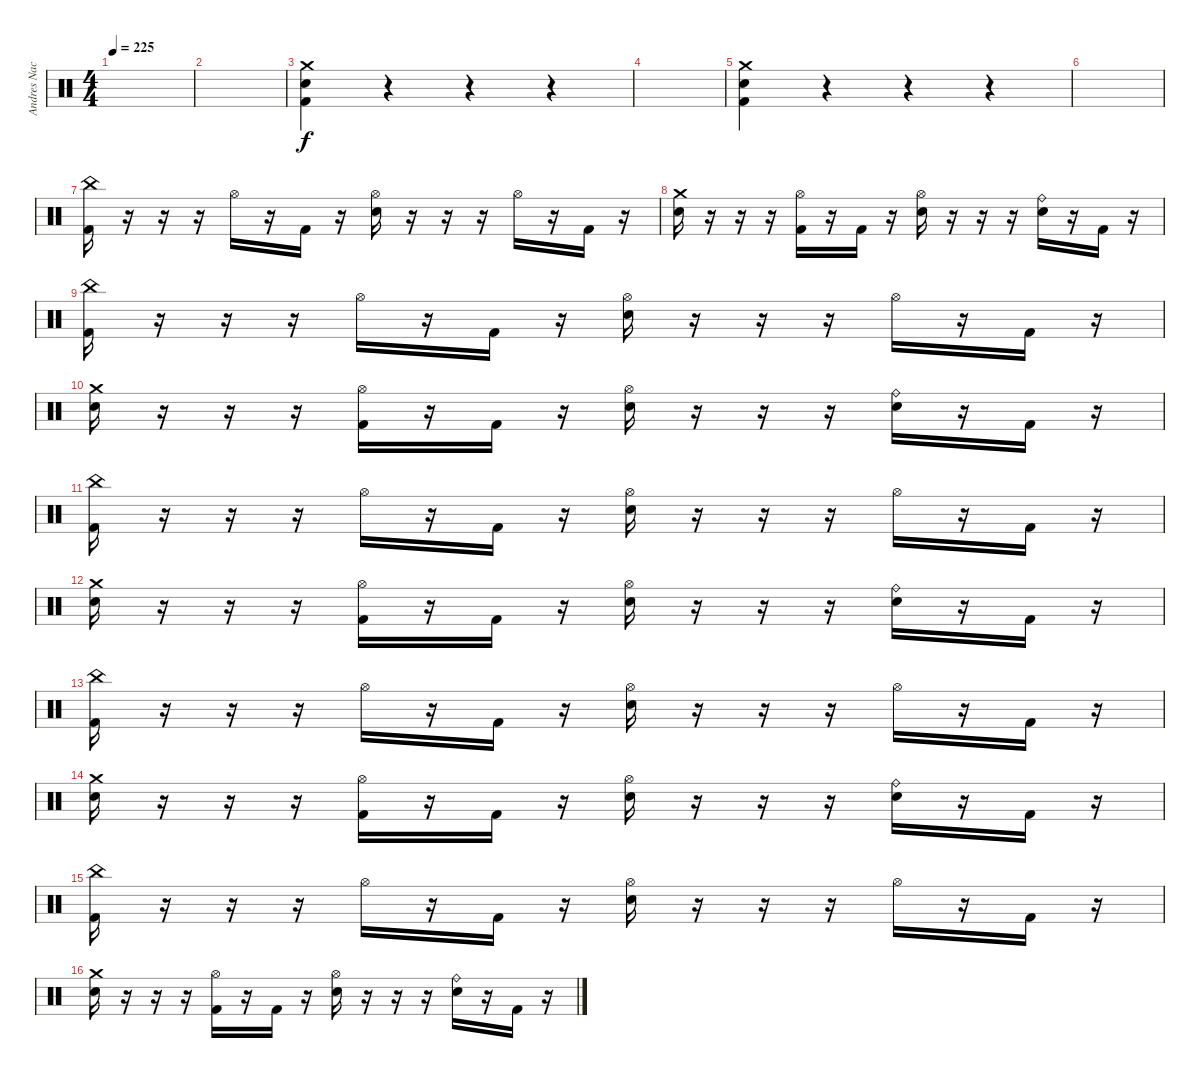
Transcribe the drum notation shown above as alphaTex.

\track ("Andres Nacrur" "Andres Nac") {instrument percussion}
\staff {score}
\articulation defaults
\ts (4 4)
\tempo 225
\clef neutral
\ks c
|
|
("Crash medium (hit)" "Snare (hit) 2" "Kick (hit) 2").4 r.4 r.4 r.4 |
|
("Crash medium (hit)" "Snare (hit) 2" "Kick (hit) 2").4 r.4 r.4 r.4 |
|
("China (hit)" "Kick (hit) 2").16 r.16 r.16 r.16 "Hi-Hat (open)".16 r.16 "Kick (hit) 2".16 r.16 ("Hi-Hat (open)" "Snare (hit) 2").16 r.16 r.16 r.16 "Hi-Hat (open)".16 r.16 "Kick (hit) 2".16 r.16 |
("Crash medium (hit)" "Snare (hit) 2").16 r.16 r.16 r.16 ("Hi-Hat (open)" "Kick (hit) 2").16 r.16 "Kick (hit) 2".16 r.16 ("Hi-Hat (open)" "Snare (hit) 2").16 r.16 r.16 r.16 ("Ride (bell)" "Snare (hit) 2").16 r.16 "Kick (hit) 2".16 r.16 |
("China (hit)" "Kick (hit) 2").16 r.16 r.16 r.16 "Hi-Hat (open)".16 r.16 "Kick (hit) 2".16 r.16 ("Hi-Hat (open)" "Snare (hit) 2").16 r.16 r.16 r.16 "Hi-Hat (open)".16 r.16 "Kick (hit) 2".16 r.16 |
("Crash medium (hit)" "Snare (hit) 2").16 r.16 r.16 r.16 ("Hi-Hat (open)" "Kick (hit) 2").16 r.16 "Kick (hit) 2".16 r.16 ("Hi-Hat (open)" "Snare (hit) 2").16 r.16 r.16 r.16 ("Ride (bell)" "Snare (hit) 2").16 r.16 "Kick (hit) 2".16 r.16 |
("China (hit)" "Kick (hit) 2").16 r.16 r.16 r.16 "Hi-Hat (open)".16 r.16 "Kick (hit) 2".16 r.16 ("Hi-Hat (open)" "Snare (hit) 2").16 r.16 r.16 r.16 "Hi-Hat (open)".16 r.16 "Kick (hit) 2".16 r.16 |
("Crash medium (hit)" "Snare (hit) 2").16 r.16 r.16 r.16 ("Hi-Hat (open)" "Kick (hit) 2").16 r.16 "Kick (hit) 2".16 r.16 ("Hi-Hat (open)" "Snare (hit) 2").16 r.16 r.16 r.16 ("Ride (bell)" "Snare (hit) 2").16 r.16 "Kick (hit) 2".16 r.16 |
("China (hit)" "Kick (hit) 2").16 r.16 r.16 r.16 "Hi-Hat (open)".16 r.16 "Kick (hit) 2".16 r.16 ("Hi-Hat (open)" "Snare (hit) 2").16 r.16 r.16 r.16 "Hi-Hat (open)".16 r.16 "Kick (hit) 2".16 r.16 |
("Crash medium (hit)" "Snare (hit) 2").16 r.16 r.16 r.16 ("Hi-Hat (open)" "Kick (hit) 2").16 r.16 "Kick (hit) 2".16 r.16 ("Hi-Hat (open)" "Snare (hit) 2").16 r.16 r.16 r.16 ("Ride (bell)" "Snare (hit) 2").16 r.16 "Kick (hit) 2".16 r.16 |
("China (hit)" "Kick (hit) 2").16 r.16 r.16 r.16 "Hi-Hat (open)".16 r.16 "Kick (hit) 2".16 r.16 ("Hi-Hat (open)" "Snare (hit) 2").16 r.16 r.16 r.16 "Hi-Hat (open)".16 r.16 "Kick (hit) 2".16 r.16 |
("Crash medium (hit)" "Snare (hit) 2").16 r.16 r.16 r.16 ("Hi-Hat (open)" "Kick (hit) 2").16 r.16 "Kick (hit) 2".16 r.16 ("Hi-Hat (open)" "Snare (hit) 2").16 r.16 r.16 r.16 ("Ride (bell)" "Snare (hit) 2").16 r.16 "Kick (hit) 2".16 r.16
